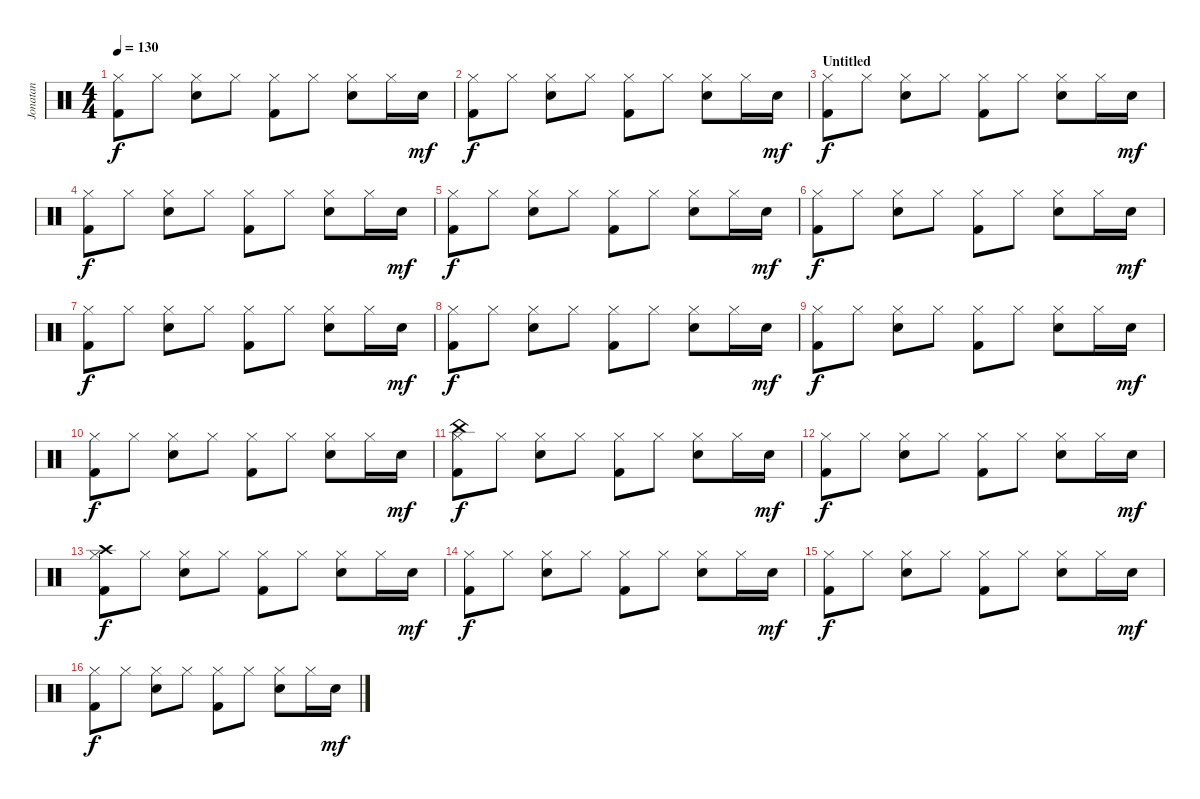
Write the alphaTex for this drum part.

\track ("Jonatan" "Jonatan") {instrument percussion}
\staff {score}
\articulation defaults
\ts (4 4)
\tempo 130
\clef neutral
\ks c
("Hi-Hat (closed)" "Kick (hit) 2").8{dy f} "Hi-Hat (closed)".8 ("Hi-Hat (closed)" "Electric Snare (hit)").8 "Hi-Hat (closed)".8 ("Hi-Hat (closed)" "Kick (hit) 2").8 "Hi-Hat (closed)".8 ("Hi-Hat (closed)" "Electric Snare (hit)").8 "Hi-Hat (closed)".16 "Electric Snare (hit)".16{dy mf} |
("Hi-Hat (closed)" "Kick (hit) 2").8{dy f} "Hi-Hat (closed)".8 ("Hi-Hat (closed)" "Electric Snare (hit)").8 "Hi-Hat (closed)".8 ("Hi-Hat (closed)" "Kick (hit) 2").8 "Hi-Hat (closed)".8 ("Hi-Hat (closed)" "Electric Snare (hit)").8 "Hi-Hat (closed)".16 "Electric Snare (hit)".16{dy mf} |
\section ("" "Untitled")
("Hi-Hat (closed)" "Kick (hit) 2").8{dy f} "Hi-Hat (closed)".8 ("Hi-Hat (closed)" "Electric Snare (hit)").8 "Hi-Hat (closed)".8 ("Hi-Hat (closed)" "Kick (hit) 2").8 "Hi-Hat (closed)".8 ("Hi-Hat (closed)" "Electric Snare (hit)").8 "Hi-Hat (closed)".16 "Electric Snare (hit)".16{dy mf} |
("Hi-Hat (closed)" "Kick (hit) 2").8{dy f} "Hi-Hat (closed)".8 ("Hi-Hat (closed)" "Electric Snare (hit)").8 "Hi-Hat (closed)".8 ("Hi-Hat (closed)" "Kick (hit) 2").8 "Hi-Hat (closed)".8 ("Hi-Hat (closed)" "Electric Snare (hit)").8 "Hi-Hat (closed)".16 "Electric Snare (hit)".16{dy mf} |
("Hi-Hat (closed)" "Kick (hit) 2").8{dy f} "Hi-Hat (closed)".8 ("Hi-Hat (closed)" "Electric Snare (hit)").8 "Hi-Hat (closed)".8 ("Hi-Hat (closed)" "Kick (hit) 2").8 "Hi-Hat (closed)".8 ("Hi-Hat (closed)" "Electric Snare (hit)").8 "Hi-Hat (closed)".16 "Electric Snare (hit)".16{dy mf} |
("Hi-Hat (closed)" "Kick (hit) 2").8{dy f} "Hi-Hat (closed)".8 ("Hi-Hat (closed)" "Electric Snare (hit)").8 "Hi-Hat (closed)".8 ("Hi-Hat (closed)" "Kick (hit) 2").8 "Hi-Hat (closed)".8 ("Hi-Hat (closed)" "Electric Snare (hit)").8 "Hi-Hat (closed)".16 "Electric Snare (hit)".16{dy mf} |
("Hi-Hat (closed)" "Kick (hit) 2").8{dy f} "Hi-Hat (closed)".8 ("Hi-Hat (closed)" "Electric Snare (hit)").8 "Hi-Hat (closed)".8 ("Hi-Hat (closed)" "Kick (hit) 2").8 "Hi-Hat (closed)".8 ("Hi-Hat (closed)" "Electric Snare (hit)").8 "Hi-Hat (closed)".16 "Electric Snare (hit)".16{dy mf} |
("Hi-Hat (closed)" "Kick (hit) 2").8{dy f} "Hi-Hat (closed)".8 ("Hi-Hat (closed)" "Electric Snare (hit)").8 "Hi-Hat (closed)".8 ("Hi-Hat (closed)" "Kick (hit) 2").8 "Hi-Hat (closed)".8 ("Hi-Hat (closed)" "Electric Snare (hit)").8 "Hi-Hat (closed)".16 "Electric Snare (hit)".16{dy mf} |
("Hi-Hat (closed)" "Kick (hit) 2").8{dy f} "Hi-Hat (closed)".8 ("Hi-Hat (closed)" "Electric Snare (hit)").8 "Hi-Hat (closed)".8 ("Hi-Hat (closed)" "Kick (hit) 2").8 "Hi-Hat (closed)".8 ("Hi-Hat (closed)" "Electric Snare (hit)").8 "Hi-Hat (closed)".16 "Electric Snare (hit)".16{dy mf} |
("Hi-Hat (closed)" "Kick (hit) 2").8{dy f} "Hi-Hat (closed)".8 ("Hi-Hat (closed)" "Electric Snare (hit)").8 "Hi-Hat (closed)".8 ("Hi-Hat (closed)" "Kick (hit) 2").8 "Hi-Hat (closed)".8 ("Hi-Hat (closed)" "Electric Snare (hit)").8 "Hi-Hat (closed)".16 "Electric Snare (hit)".16{dy mf} |
("China (hit)" "Hi-Hat (closed)" "Kick (hit) 2").8{dy f} "Hi-Hat (closed)".8 ("Hi-Hat (closed)" "Electric Snare (hit)").8 "Hi-Hat (closed)".8 ("Hi-Hat (closed)" "Kick (hit) 2").8 "Hi-Hat (closed)".8 ("Hi-Hat (closed)" "Electric Snare (hit)").8 "Hi-Hat (closed)".16 "Electric Snare (hit)".16{dy mf} |
("Hi-Hat (closed)" "Kick (hit) 2").8{dy f} "Hi-Hat (closed)".8 ("Hi-Hat (closed)" "Electric Snare (hit)").8 "Hi-Hat (closed)".8 ("Hi-Hat (closed)" "Kick (hit) 2").8 "Hi-Hat (closed)".8 ("Hi-Hat (closed)" "Electric Snare (hit)").8 "Hi-Hat (closed)".16 "Electric Snare (hit)".16{dy mf} |
("Crash high (hit)" "Hi-Hat (closed)" "Kick (hit) 2").8{dy f} "Hi-Hat (closed)".8 ("Hi-Hat (closed)" "Electric Snare (hit)").8 "Hi-Hat (closed)".8 ("Hi-Hat (closed)" "Kick (hit) 2").8 "Hi-Hat (closed)".8 ("Hi-Hat (closed)" "Electric Snare (hit)").8 "Hi-Hat (closed)".16 "Electric Snare (hit)".16{dy mf} |
("Hi-Hat (closed)" "Kick (hit) 2").8{dy f} "Hi-Hat (closed)".8 ("Hi-Hat (closed)" "Electric Snare (hit)").8 "Hi-Hat (closed)".8 ("Hi-Hat (closed)" "Kick (hit) 2").8 "Hi-Hat (closed)".8 ("Hi-Hat (closed)" "Electric Snare (hit)").8 "Hi-Hat (closed)".16 "Electric Snare (hit)".16{dy mf} |
("Hi-Hat (closed)" "Kick (hit) 2").8{dy f} "Hi-Hat (closed)".8 ("Hi-Hat (closed)" "Electric Snare (hit)").8 "Hi-Hat (closed)".8 ("Hi-Hat (closed)" "Kick (hit) 2").8 "Hi-Hat (closed)".8 ("Hi-Hat (closed)" "Electric Snare (hit)").8 "Hi-Hat (closed)".16 "Electric Snare (hit)".16{dy mf} |
("Hi-Hat (closed)" "Kick (hit) 2").8{dy f} "Hi-Hat (closed)".8 ("Hi-Hat (closed)" "Electric Snare (hit)").8 "Hi-Hat (closed)".8 ("Hi-Hat (closed)" "Kick (hit) 2").8 "Hi-Hat (closed)".8 ("Hi-Hat (closed)" "Electric Snare (hit)").8 "Hi-Hat (closed)".16 "Electric Snare (hit)".16{dy mf}
